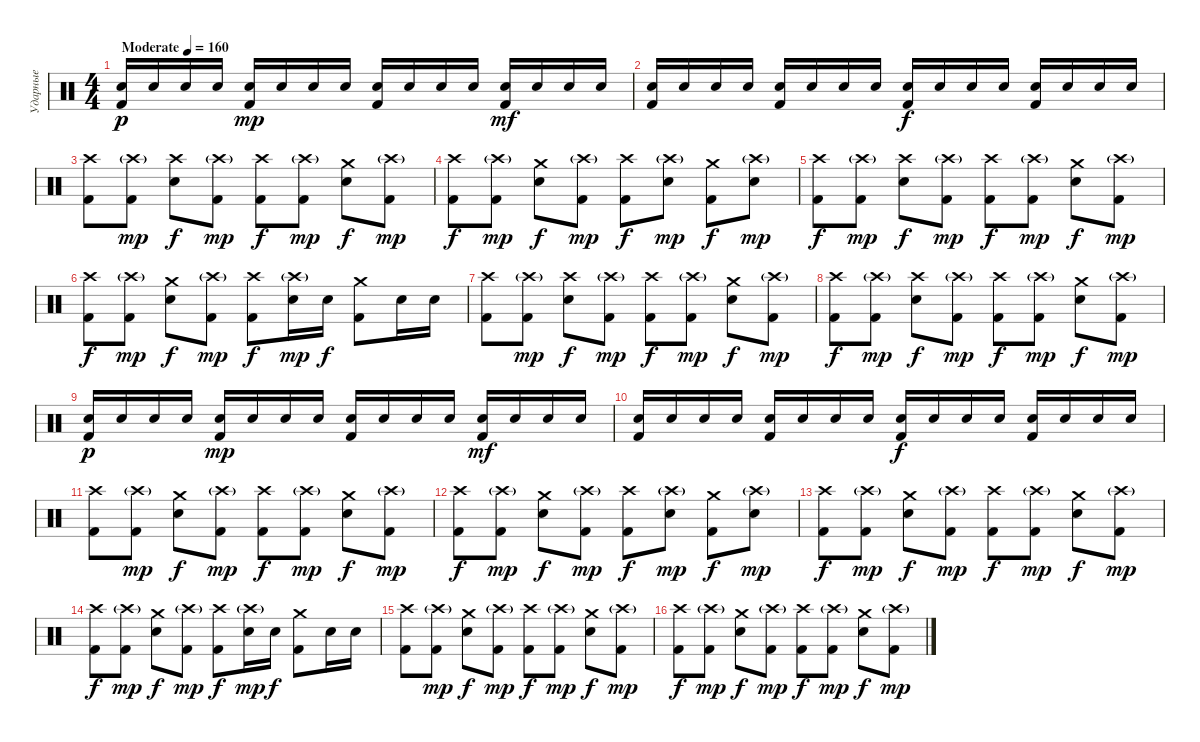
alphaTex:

\track ("Ударные" "Ударные") {instrument percussion}
\staff {score}
\articulation defaults
\ts (4 4)
\tempo (160 "Moderate")
\clef neutral
\ks c
("Snare (hit) 2" "Kick (hit) 2").16{dy p} "Snare (hit) 2".16 "Snare (hit) 2".16 "Snare (hit) 2".16 ("Snare (hit) 2" "Kick (hit) 2").16{dy mp} "Snare (hit) 2".16 "Snare (hit) 2".16 "Snare (hit) 2".16 ("Snare (hit) 2" "Kick (hit) 2").16 "Snare (hit) 2".16 "Snare (hit) 2".16 "Snare (hit) 2".16 ("Snare (hit) 2" "Kick (hit) 2").16{dy mf} "Snare (hit) 2".16 "Snare (hit) 2".16 "Snare (hit) 2".16 |
("Snare (hit) 2" "Kick (hit) 2").16 "Snare (hit) 2".16 "Snare (hit) 2".16 "Snare (hit) 2".16 ("Snare (hit) 2" "Kick (hit) 2").16 "Snare (hit) 2".16 "Snare (hit) 2".16 "Snare (hit) 2".16 ("Snare (hit) 2" "Kick (hit) 2").16{dy f} "Snare (hit) 2".16 "Snare (hit) 2".16 "Snare (hit) 2".16 ("Snare (hit) 2" "Kick (hit) 2").16 "Snare (hit) 2".16 "Snare (hit) 2".16 "Snare (hit) 2".16 |
("Crash high (hit)" "Kick (hit) 2").8 ("Crash high (hit)"{g} "Kick (hit) 2").8{dy mp} ("Crash high (hit)" "Snare (hit) 2").8{dy f} ("Crash high (hit)"{g} "Kick (hit) 2").8{dy mp} ("Crash high (hit)" "Kick (hit) 2").8{dy f} ("Crash high (hit)"{g} "Kick (hit) 2").8{dy mp} ("Crash medium (hit)" "Snare (hit) 2").8{dy f} ("Crash high (hit)"{g} "Kick (hit) 2").8{dy mp} |
("Crash high (hit)" "Kick (hit) 2").8{dy f} ("Crash high (hit)"{g} "Kick (hit) 2").8{dy mp} ("Crash medium (hit)" "Snare (hit) 2").8{dy f} ("Crash high (hit)"{g} "Kick (hit) 2").8{dy mp} ("Crash high (hit)" "Kick (hit) 2").8{dy f} ("Crash high (hit)"{g} "Snare (hit) 2").8{dy mp} ("Crash medium (hit)" "Kick (hit) 2").8{dy f} ("Crash high (hit)"{g} "Snare (hit) 2").8{dy mp} |
("Crash high (hit)" "Kick (hit) 2").8{dy f} ("Crash high (hit)"{g} "Kick (hit) 2").8{dy mp} ("Crash high (hit)" "Snare (hit) 2").8{dy f} ("Crash high (hit)"{g} "Kick (hit) 2").8{dy mp} ("Crash high (hit)" "Kick (hit) 2").8{dy f} ("Crash high (hit)"{g} "Kick (hit) 2").8{dy mp} ("Crash medium (hit)" "Snare (hit) 2").8{dy f} ("Crash high (hit)"{g} "Kick (hit) 2").8{dy mp} |
("Crash high (hit)" "Kick (hit) 2").8{dy f} ("Crash high (hit)"{g} "Kick (hit) 2").8{dy mp} ("Crash medium (hit)" "Snare (hit) 2").8{dy f} ("Crash high (hit)"{g} "Kick (hit) 2").8{dy mp} ("Crash high (hit)" "Kick (hit) 2").8{dy f} ("Crash high (hit)"{g} "Snare (hit) 2").16{dy mp} "Snare (hit) 2".16{dy f} ("Crash medium (hit)" "Kick (hit) 2").8 "Snare (hit) 2".16 "Snare (hit) 2".16 |
("Crash high (hit)" "Kick (hit) 2").8 ("Crash high (hit)"{g} "Kick (hit) 2").8{dy mp} ("Crash high (hit)" "Snare (hit) 2").8{dy f} ("Crash high (hit)"{g} "Kick (hit) 2").8{dy mp} ("Crash high (hit)" "Kick (hit) 2").8{dy f} ("Crash high (hit)"{g} "Kick (hit) 2").8{dy mp} ("Crash medium (hit)" "Snare (hit) 2").8{dy f} ("Crash high (hit)"{g} "Kick (hit) 2").8{dy mp} |
("Crash high (hit)" "Kick (hit) 2").8{dy f} ("Crash high (hit)"{g} "Kick (hit) 2").8{dy mp} ("Crash high (hit)" "Snare (hit) 2").8{dy f} ("Crash high (hit)"{g} "Kick (hit) 2").8{dy mp} ("Crash high (hit)" "Kick (hit) 2").8{dy f} ("Crash high (hit)"{g} "Kick (hit) 2").8{dy mp} ("Crash medium (hit)" "Snare (hit) 2").8{dy f} ("Crash high (hit)"{g} "Kick (hit) 2").8{dy mp} |
("Snare (hit) 2" "Kick (hit) 2").16{dy p} "Snare (hit) 2".16 "Snare (hit) 2".16 "Snare (hit) 2".16 ("Snare (hit) 2" "Kick (hit) 2").16{dy mp} "Snare (hit) 2".16 "Snare (hit) 2".16 "Snare (hit) 2".16 ("Snare (hit) 2" "Kick (hit) 2").16 "Snare (hit) 2".16 "Snare (hit) 2".16 "Snare (hit) 2".16 ("Snare (hit) 2" "Kick (hit) 2").16{dy mf} "Snare (hit) 2".16 "Snare (hit) 2".16 "Snare (hit) 2".16 |
("Snare (hit) 2" "Kick (hit) 2").16 "Snare (hit) 2".16 "Snare (hit) 2".16 "Snare (hit) 2".16 ("Snare (hit) 2" "Kick (hit) 2").16 "Snare (hit) 2".16 "Snare (hit) 2".16 "Snare (hit) 2".16 ("Snare (hit) 2" "Kick (hit) 2").16{dy f} "Snare (hit) 2".16 "Snare (hit) 2".16 "Snare (hit) 2".16 ("Snare (hit) 2" "Kick (hit) 2").16 "Snare (hit) 2".16 "Snare (hit) 2".16 "Snare (hit) 2".16 |
("Crash high (hit)" "Kick (hit) 2").8 ("Crash high (hit)"{g} "Kick (hit) 2").8{dy mp} ("Crash medium (hit)" "Snare (hit) 2").8{dy f} ("Crash high (hit)"{g} "Kick (hit) 2").8{dy mp} ("Crash high (hit)" "Kick (hit) 2").8{dy f} ("Crash high (hit)"{g} "Kick (hit) 2").8{dy mp} ("Crash medium (hit)" "Snare (hit) 2").8{dy f} ("Crash high (hit)"{g} "Kick (hit) 2").8{dy mp} |
("Crash high (hit)" "Kick (hit) 2").8{dy f} ("Crash high (hit)"{g} "Kick (hit) 2").8{dy mp} ("Crash medium (hit)" "Snare (hit) 2").8{dy f} ("Crash high (hit)"{g} "Kick (hit) 2").8{dy mp} ("Crash high (hit)" "Kick (hit) 2").8{dy f} ("Crash high (hit)"{g} "Snare (hit) 2").8{dy mp} ("Crash medium (hit)" "Kick (hit) 2").8{dy f} ("Crash high (hit)"{g} "Snare (hit) 2").8{dy mp} |
("Crash high (hit)" "Kick (hit) 2").8{dy f} ("Crash high (hit)"{g} "Kick (hit) 2").8{dy mp} ("Crash medium (hit)" "Snare (hit) 2").8{dy f} ("Crash high (hit)"{g} "Kick (hit) 2").8{dy mp} ("Crash high (hit)" "Kick (hit) 2").8{dy f} ("Crash high (hit)"{g} "Kick (hit) 2").8{dy mp} ("Crash medium (hit)" "Snare (hit) 2").8{dy f} ("Crash high (hit)"{g} "Kick (hit) 2").8{dy mp} |
("Crash high (hit)" "Kick (hit) 2").8{dy f} ("Crash high (hit)"{g} "Kick (hit) 2").8{dy mp} ("Crash medium (hit)" "Snare (hit) 2").8{dy f} ("Crash high (hit)"{g} "Kick (hit) 2").8{dy mp} ("Crash high (hit)" "Kick (hit) 2").8{dy f} ("Crash high (hit)"{g} "Snare (hit) 2").16{dy mp} "Snare (hit) 2".16{dy f} ("Crash medium (hit)" "Kick (hit) 2").8 "Snare (hit) 2".16 "Snare (hit) 2".16 |
("Crash high (hit)" "Kick (hit) 2").8 ("Crash high (hit)"{g} "Kick (hit) 2").8{dy mp} ("Crash medium (hit)" "Snare (hit) 2").8{dy f} ("Crash high (hit)"{g} "Kick (hit) 2").8{dy mp} ("Crash high (hit)" "Kick (hit) 2").8{dy f} ("Crash high (hit)"{g} "Kick (hit) 2").8{dy mp} ("Crash medium (hit)" "Snare (hit) 2").8{dy f} ("Crash high (hit)"{g} "Kick (hit) 2").8{dy mp} |
("Crash high (hit)" "Kick (hit) 2").8{dy f} ("Crash high (hit)"{g} "Kick (hit) 2").8{dy mp} ("Crash medium (hit)" "Snare (hit) 2").8{dy f} ("Crash high (hit)"{g} "Kick (hit) 2").8{dy mp} ("Crash high (hit)" "Kick (hit) 2").8{dy f} ("Crash high (hit)"{g} "Kick (hit) 2").8{dy mp} ("Crash medium (hit)" "Snare (hit) 2").8{dy f} ("Crash high (hit)"{g} "Kick (hit) 2").8{dy mp}
